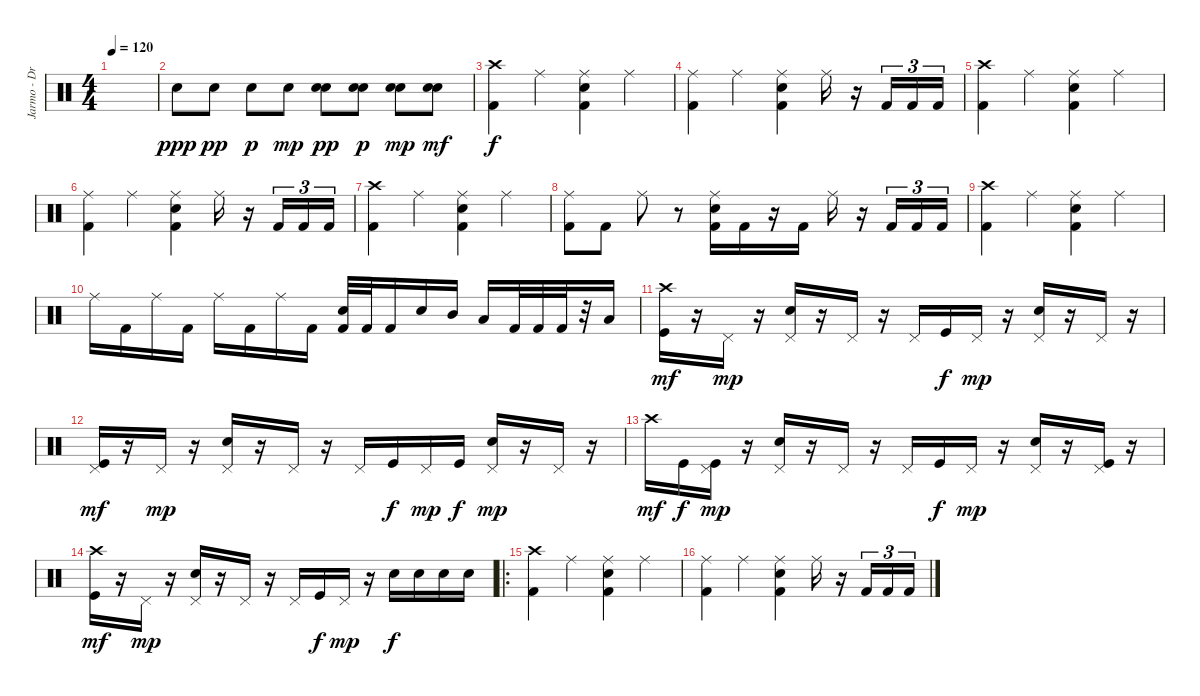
\track ("Jarmo - Drums" "Jarmo - Dr") {instrument percussion}
\staff {score}
\articulation defaults
\ts (4 4)
\tempo 120
\clef neutral
\ks c
|
"Electric Snare (hit)".8{dy ppp} "Electric Snare (hit)".8{dy pp} "Electric Snare (hit)".8{dy p} "Electric Snare (hit)".8{dy mp} ("Electric Snare (hit)" "Snare (hit) 2").8{dy pp} ("Electric Snare (hit)" "Snare (hit) 2").8{dy p} ("Electric Snare (hit)" "Snare (hit) 2").8{dy mp} ("Electric Snare (hit)" "Snare (hit) 2").8{dy mf} |
("Kick (hit) 2" "Crash high (hit)").4{dy f} "Ride (middle)".4 ("Kick (hit) 2" "Electric Snare (hit)" "Ride (middle)").4 "Ride (middle)".4 |
("Kick (hit) 2" "Ride (middle)").4 "Ride (middle)".4 ("Kick (hit) 2" "Electric Snare (hit)" "Ride (middle)").4 "Ride (middle)".16 r.16 "Kick (hit) 2".16{tu (3 2)} "Kick (hit) 2".16{tu (3 2)} "Kick (hit) 2".16{tu (3 2)} |
("Kick (hit) 2" "Crash high (hit)").4 "Ride (middle)".4 ("Kick (hit) 2" "Electric Snare (hit)" "Ride (middle)").4 "Ride (middle)".4 |
("Kick (hit) 2" "Ride (middle)").4 "Ride (middle)".4 ("Kick (hit) 2" "Electric Snare (hit)" "Ride (middle)").4 "Ride (middle)".16 r.16 "Kick (hit) 2".16{tu (3 2)} "Kick (hit) 2".16{tu (3 2)} "Kick (hit) 2".16{tu (3 2)} |
("Kick (hit) 2" "Crash high (hit)").4 "Ride (middle)".4 ("Kick (hit) 2" "Electric Snare (hit)" "Ride (middle)").4 "Ride (middle)".4 |
("Kick (hit) 2" "Ride (middle)").8 "Kick (hit) 2".8 "Ride (middle)".8 r.8 ("Kick (hit) 2" "Electric Snare (hit)" "Ride (middle)").16 "Kick (hit) 2".16 r.16 "Kick (hit) 2".16 "Ride (middle)".16 r.16 "Kick (hit) 2".16{tu (3 2)} "Kick (hit) 2".16{tu (3 2)} "Kick (hit) 2".16{tu (3 2)} |
("Kick (hit) 2" "Crash high (hit)").4 "Ride (middle)".4 ("Kick (hit) 2" "Electric Snare (hit)" "Ride (middle)").4 "Ride (middle)".4 |
"Ride (middle)".16 "Kick (hit) 2".16 "Ride (middle)".16 "Kick (hit) 2".16 "Ride (middle)".16 "Kick (hit) 2".16 "Ride (middle)".16 "Kick (hit) 2".16 ("Kick (hit) 2" "Electric Snare (hit)").32 "Kick (hit) 2".32 "Kick (hit) 2".16 "Electric Snare (hit)".16 "Mid Tom (hit)".16 "Low Tom (hit)".16 "Kick (hit) 2".32 "Kick (hit) 2".32 "Kick (hit) 2".32 r.32 "Low Tom (hit)".16 |
("Kick (hit)" "Crash high (hit)").16{dy mf} r.16 "Pedal Hi-Hat (hit)".16{dy mp} r.16 ("Electric Snare (hit)" "Pedal Hi-Hat (hit)").16 r.16 "Pedal Hi-Hat (hit)".16 r.16 "Pedal Hi-Hat (hit)".16 "Kick (hit)".16{dy f} "Pedal Hi-Hat (hit)".16{dy mp} r.16 ("Electric Snare (hit)" "Pedal Hi-Hat (hit)").16 r.16 "Pedal Hi-Hat (hit)".16 r.16 |
("Kick (hit)" "Pedal Hi-Hat (hit)").16{dy mf} r.16 "Pedal Hi-Hat (hit)".16{dy mp} r.16 ("Electric Snare (hit)" "Pedal Hi-Hat (hit)").16 r.16 "Pedal Hi-Hat (hit)".16 r.16 "Pedal Hi-Hat (hit)".16 "Kick (hit)".16{dy f} "Pedal Hi-Hat (hit)".16{dy mp} "Kick (hit)".16{dy f} ("Electric Snare (hit)" "Pedal Hi-Hat (hit)").16{dy mp} r.16 "Pedal Hi-Hat (hit)".16 r.16 |
"Crash high (hit)".16{dy mf} "Kick (hit)".16{dy f} ("Kick (hit)" "Pedal Hi-Hat (hit)").16{dy mp} r.16 ("Electric Snare (hit)" "Pedal Hi-Hat (hit)").16 r.16 "Pedal Hi-Hat (hit)".16 r.16 "Pedal Hi-Hat (hit)".16 "Kick (hit)".16{dy f} "Pedal Hi-Hat (hit)".16{dy mp} r.16 ("Electric Snare (hit)" "Pedal Hi-Hat (hit)").16 r.16 ("Kick (hit)" "Pedal Hi-Hat (hit)").16 r.16 |
("Kick (hit)" "Crash high (hit)").16{dy mf} r.16 "Pedal Hi-Hat (hit)".16{dy mp} r.16 ("Electric Snare (hit)" "Pedal Hi-Hat (hit)").16 r.16 "Pedal Hi-Hat (hit)".16 r.16 "Pedal Hi-Hat (hit)".16 "Kick (hit)".16{dy f} "Pedal Hi-Hat (hit)".16{dy mp} r.16 "Electric Snare (hit)".16{dy f} "Electric Snare (hit)".16 "Electric Snare (hit)".16 "Electric Snare (hit)".16 |
\ro
("Kick (hit) 2" "Crash high (hit)").4 "Ride (middle)".4 ("Kick (hit) 2" "Electric Snare (hit)" "Ride (middle)").4 "Ride (middle)".4 |
("Kick (hit) 2" "Ride (middle)").4 "Ride (middle)".4 ("Kick (hit) 2" "Electric Snare (hit)" "Ride (middle)").4 "Ride (middle)".16 r.16 "Kick (hit) 2".16{tu (3 2)} "Kick (hit) 2".16{tu (3 2)} "Kick (hit) 2".16{tu (3 2)}
